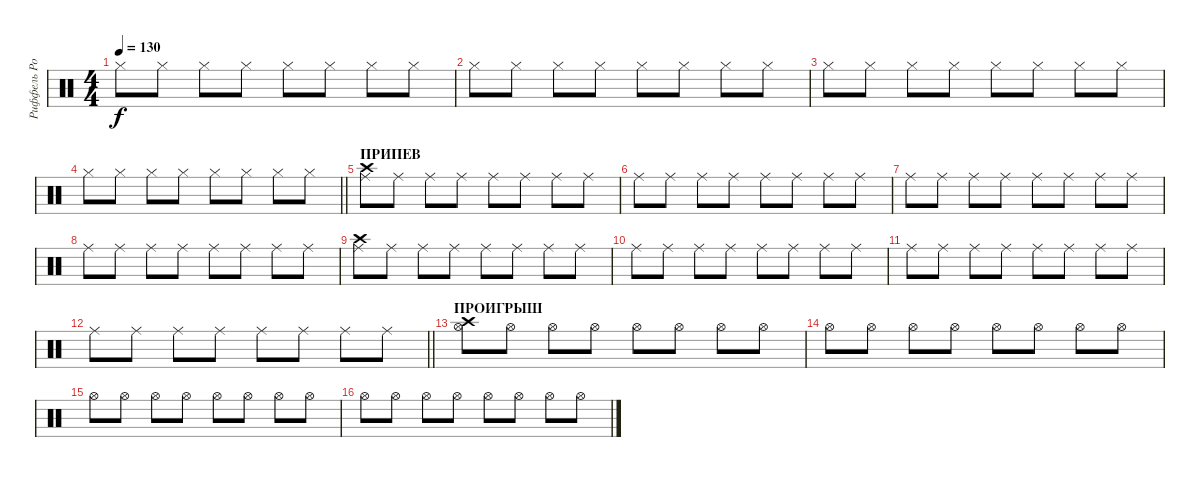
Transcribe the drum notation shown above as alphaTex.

\track ("Риффель Роман (хэты)" "Риффель Ро") {instrument percussion}
\staff {score}
\articulation defaults
\ts (4 4)
\tempo 130
\clef neutral
\ks c "Hi-Hat (closed)".8{dy f} "Hi-Hat (closed)".8 "Hi-Hat (closed)".8 "Hi-Hat (closed)".8 "Hi-Hat (closed)".8 "Hi-Hat (closed)".8 "Hi-Hat (closed)".8 "Hi-Hat (closed)".8
|
"Hi-Hat (closed)".8 "Hi-Hat (closed)".8 "Hi-Hat (closed)".8 "Hi-Hat (closed)".8 "Hi-Hat (closed)".8 "Hi-Hat (closed)".8 "Hi-Hat (closed)".8 "Hi-Hat (closed)".8 |
"Hi-Hat (closed)".8 "Hi-Hat (closed)".8 "Hi-Hat (closed)".8 "Hi-Hat (closed)".8 "Hi-Hat (closed)".8 "Hi-Hat (closed)".8 "Hi-Hat (closed)".8 "Hi-Hat (closed)".8 |
\barLineRight lightlight "Hi-Hat (closed)".8 "Hi-Hat (closed)".8 "Hi-Hat (closed)".8 "Hi-Hat (closed)".8 "Hi-Hat (closed)".8 "Hi-Hat (closed)".8 "Hi-Hat (closed)".8 "Hi-Hat (closed)".8
|
\section ("" "ПРИПЕВ")
("Crash high (hit)" "Ride (middle)").8 "Ride (middle)".8 "Ride (middle)".8 "Ride (middle)".8 "Ride (middle)".8 "Ride (middle)".8 "Ride (middle)".8 "Ride (middle)".8 |
"Ride (middle)".8 "Ride (middle)".8 "Ride (middle)".8 "Ride (middle)".8 "Ride (middle)".8 "Ride (middle)".8 "Ride (middle)".8 "Ride (middle)".8 |
"Ride (middle)".8 "Ride (middle)".8 "Ride (middle)".8 "Ride (middle)".8 "Ride (middle)".8 "Ride (middle)".8 "Ride (middle)".8 "Ride (middle)".8 |
"Ride (middle)".8 "Ride (middle)".8 "Ride (middle)".8 "Ride (middle)".8 "Ride (middle)".8 "Ride (middle)".8 "Ride (middle)".8 "Ride (middle)".8 |
("Crash high (hit)" "Ride (middle)").8 "Ride (middle)".8 "Ride (middle)".8 "Ride (middle)".8 "Ride (middle)".8 "Ride (middle)".8 "Ride (middle)".8 "Ride (middle)".8 |
"Ride (middle)".8 "Ride (middle)".8 "Ride (middle)".8 "Ride (middle)".8 "Ride (middle)".8 "Ride (middle)".8 "Ride (middle)".8 "Ride (middle)".8 |
"Ride (middle)".8 "Ride (middle)".8 "Ride (middle)".8 "Ride (middle)".8 "Ride (middle)".8 "Ride (middle)".8 "Ride (middle)".8 "Ride (middle)".8 |
\barLineRight lightlight "Ride (middle)".8 "Ride (middle)".8 "Ride (middle)".8 "Ride (middle)".8 "Ride (middle)".8 "Ride (middle)".8 "Ride (middle)".8 "Ride (middle)".8
|
\section ("" "ПРОИГРЫШ")
("Crash high (hit)" "Hi-Hat (open)").8 "Hi-Hat (open)".8 "Hi-Hat (open)".8 "Hi-Hat (open)".8 "Hi-Hat (open)".8 "Hi-Hat (open)".8 "Hi-Hat (open)".8 "Hi-Hat (open)".8 |
"Hi-Hat (open)".8 "Hi-Hat (open)".8 "Hi-Hat (open)".8 "Hi-Hat (open)".8 "Hi-Hat (open)".8 "Hi-Hat (open)".8 "Hi-Hat (open)".8 "Hi-Hat (open)".8 |
"Hi-Hat (open)".8 "Hi-Hat (open)".8 "Hi-Hat (open)".8 "Hi-Hat (open)".8 "Hi-Hat (open)".8 "Hi-Hat (open)".8 "Hi-Hat (open)".8 "Hi-Hat (open)".8 |
"Hi-Hat (open)".8 "Hi-Hat (open)".8 "Hi-Hat (open)".8 "Hi-Hat (open)".8 "Hi-Hat (open)".8 "Hi-Hat (open)".8 "Hi-Hat (open)".8 "Hi-Hat (open)".8
